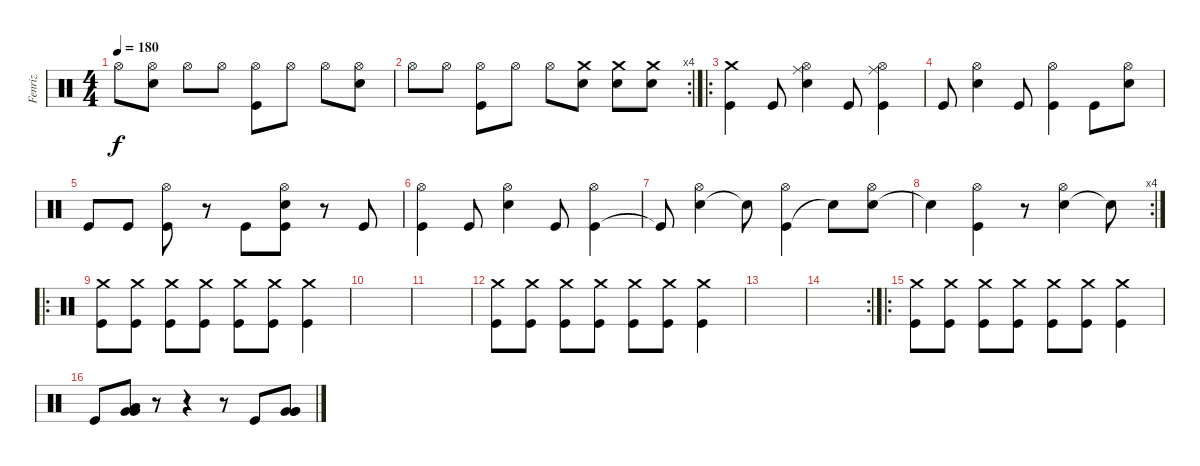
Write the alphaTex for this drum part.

\track ("Fenriz" "Fenriz") {instrument percussion}
\staff {score}
\articulation defaults
\ts (4 4)
\tempo 180
\clef neutral
\ks c "Hi-Hat (open)".8{dy f}
("Hi-Hat (open)" "Snare (hit) 2").8 "Hi-Hat (open)".8 "Hi-Hat (open)".8 ("Hi-Hat (open)" "Kick (hit)").8 "Hi-Hat (open)".8 "Hi-Hat (open)".8 ("Hi-Hat (open)" "Snare (hit) 2").8 |
\rc 4 "Hi-Hat (open)".8 "Hi-Hat (open)".8
("Hi-Hat (open)" "Kick (hit)").8 "Hi-Hat (open)".8 "Hi-Hat (open)".8 ("Crash medium (hit)" "Snare (hit) 2").8 ("Crash medium (hit)" "Snare (hit) 2").8 ("Crash medium (hit)" "Snare (hit) 2").8 |
\ro
("Kick (hit)" "Crash medium (hit)").4 "Kick (hit)".8 ("Snare (hit) 2" "Hi-Hat (open)" "Ride (middle)").4 "Kick (hit)".8 ("Kick (hit)" "Hi-Hat (open)" "Ride (middle)").4 |
"Kick (hit)".8 ("Snare (hit) 2" "Hi-Hat (open)").4 "Kick (hit)".8 ("Kick (hit)" "Hi-Hat (open)").4 "Kick (hit)".8 ("Snare (hit) 2" "Hi-Hat (open)").8 |
"Kick (hit)".8 "Kick (hit)".8 ("Kick (hit)" "Hi-Hat (open)").8 r.8 "Kick (hit)".8 ("Kick (hit)" "Snare (hit) 2" "Hi-Hat (open)").8 r.8 "Kick (hit)".8 |
("Kick (hit)" "Hi-Hat (open)").4 "Kick (hit)".8 ("Snare (hit) 2" "Hi-Hat (open)").4 "Kick (hit)".8 ("Kick (hit)" "Hi-Hat (open)").4 |
"Kick (hit)"{t}.8 ("Snare (hit) 2" "Hi-Hat (open)").4 "Snare (hit) 2"{t}.8 ("Kick (hit)" "Hi-Hat (open)").4 "Snare (hit)"{t}.8 ("Snare (hit) 2" "Hi-Hat (open)").8 |
\rc 4 "Snare (hit)"{t}.4
("Kick (hit)" "Hi-Hat (open)").4 r.8 ("Snare (hit) 2" "Hi-Hat (open)").4 "Snare (hit)"{t}.8 |
\ro
("Crash medium (hit)" "Kick (hit)").8 ("Crash medium (hit)" "Kick (hit)").8 ("Crash medium (hit)" "Kick (hit)").8 ("Crash medium (hit)" "Kick (hit)").8 ("Crash medium (hit)" "Kick (hit)").8 ("Crash medium (hit)" "Kick (hit)").8 ("Crash medium (hit)" "Kick (hit)").4 |
|
|
("Crash medium (hit)" "Kick (hit)").8 ("Crash medium (hit)" "Kick (hit)").8 ("Crash medium (hit)" "Kick (hit)").8 ("Crash medium (hit)" "Kick (hit)").8 ("Crash medium (hit)" "Kick (hit)").8 ("Crash medium (hit)" "Kick (hit)").8 ("Crash medium (hit)" "Kick (hit)").4 |
|
\rc 2
|
\ro
("Kick (hit)" "Crash medium (hit)").8 ("Kick (hit)" "Crash medium (hit)").8 ("Kick (hit)" "Crash medium (hit)").8 ("Kick (hit)" "Crash medium (hit)").8 ("Kick (hit)" "Crash medium (hit)").8 ("Kick (hit)" "Crash medium (hit)").8 ("Kick (hit)" "Crash medium (hit)").4 |
"Kick (hit)".8 ("Very Low Tom (hit)" "Low Tom (hit)" "Very Low Tom (hit)").8 r.8 r.4 r.8 "Kick (hit)".8 ("Very Low Tom (hit)" "Very Low Tom (hit)" "Very Low Tom (hit)").8
